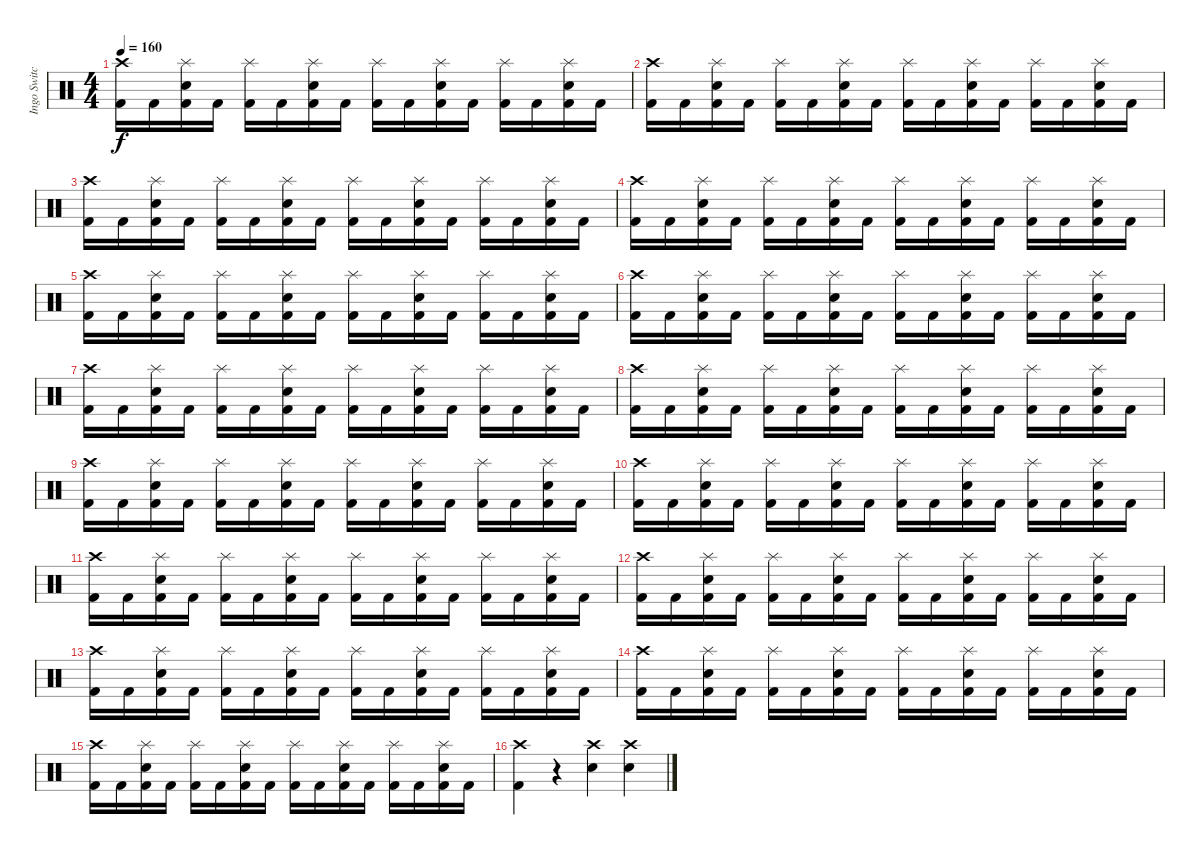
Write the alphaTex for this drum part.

\track ("Ingo Switchenberg" "Ingo Switc") {instrument percussion}
\staff {score}
\articulation defaults
\ts (4 4)
\tempo 160
\clef neutral
\ks c
("Crash high (hit)" "Kick (hit) 2").16{dy f} "Kick (hit) 2".16 ("Snare (hit) 2" "Kick (hit) 2" "Splash (hit)").16 "Kick (hit) 2".16 ("Kick (hit) 2" "Splash (hit)").16 "Kick (hit) 2".16 ("Snare (hit) 2" "Kick (hit) 2" "Splash (hit)").16 "Kick (hit) 2".16 ("Kick (hit) 2" "Splash (hit)").16 "Kick (hit) 2".16 ("Snare (hit) 2" "Kick (hit) 2" "Splash (hit)").16 "Kick (hit) 2".16 ("Kick (hit) 2" "Splash (hit)").16 "Kick (hit) 2".16 ("Snare (hit) 2" "Kick (hit) 2" "Splash (hit)").16 "Kick (hit) 2".16 |
("Crash high (hit)" "Kick (hit) 2").16 "Kick (hit) 2".16 ("Snare (hit) 2" "Kick (hit) 2" "Splash (hit)").16 "Kick (hit) 2".16 ("Kick (hit) 2" "Splash (hit)").16 "Kick (hit) 2".16 ("Snare (hit) 2" "Kick (hit) 2" "Splash (hit)").16 "Kick (hit) 2".16 ("Kick (hit) 2" "Splash (hit)").16 "Kick (hit) 2".16 ("Snare (hit) 2" "Kick (hit) 2" "Splash (hit)").16 "Kick (hit) 2".16 ("Kick (hit) 2" "Splash (hit)").16 "Kick (hit) 2".16 ("Snare (hit) 2" "Kick (hit) 2" "Splash (hit)").16 "Kick (hit) 2".16 |
("Crash high (hit)" "Kick (hit) 2").16 "Kick (hit) 2".16 ("Snare (hit) 2" "Kick (hit) 2" "Splash (hit)").16 "Kick (hit) 2".16 ("Kick (hit) 2" "Splash (hit)").16 "Kick (hit) 2".16 ("Snare (hit) 2" "Kick (hit) 2" "Splash (hit)").16 "Kick (hit) 2".16 ("Kick (hit) 2" "Splash (hit)").16 "Kick (hit) 2".16 ("Snare (hit) 2" "Kick (hit) 2" "Splash (hit)").16 "Kick (hit) 2".16 ("Kick (hit) 2" "Splash (hit)").16 "Kick (hit) 2".16 ("Snare (hit) 2" "Kick (hit) 2" "Splash (hit)").16 "Kick (hit) 2".16 |
("Crash high (hit)" "Kick (hit) 2").16 "Kick (hit) 2".16 ("Snare (hit) 2" "Kick (hit) 2" "Splash (hit)").16 "Kick (hit) 2".16 ("Kick (hit) 2" "Splash (hit)").16 "Kick (hit) 2".16 ("Snare (hit) 2" "Kick (hit) 2" "Splash (hit)").16 "Kick (hit) 2".16 ("Kick (hit) 2" "Splash (hit)").16 "Kick (hit) 2".16 ("Snare (hit) 2" "Kick (hit) 2" "Splash (hit)").16 "Kick (hit) 2".16 ("Kick (hit) 2" "Splash (hit)").16 "Kick (hit) 2".16 ("Snare (hit) 2" "Kick (hit) 2" "Splash (hit)").16 "Kick (hit) 2".16 |
("Crash high (hit)" "Kick (hit) 2").16 "Kick (hit) 2".16 ("Snare (hit) 2" "Kick (hit) 2" "Splash (hit)").16 "Kick (hit) 2".16 ("Kick (hit) 2" "Splash (hit)").16 "Kick (hit) 2".16 ("Snare (hit) 2" "Kick (hit) 2" "Splash (hit)").16 "Kick (hit) 2".16 ("Kick (hit) 2" "Splash (hit)").16 "Kick (hit) 2".16 ("Snare (hit) 2" "Kick (hit) 2" "Splash (hit)").16 "Kick (hit) 2".16 ("Kick (hit) 2" "Splash (hit)").16 "Kick (hit) 2".16 ("Snare (hit) 2" "Kick (hit) 2" "Splash (hit)").16 "Kick (hit) 2".16 |
("Crash high (hit)" "Kick (hit) 2").16 "Kick (hit) 2".16 ("Snare (hit) 2" "Kick (hit) 2" "Splash (hit)").16 "Kick (hit) 2".16 ("Kick (hit) 2" "Splash (hit)").16 "Kick (hit) 2".16 ("Snare (hit) 2" "Kick (hit) 2" "Splash (hit)").16 "Kick (hit) 2".16 ("Kick (hit) 2" "Splash (hit)").16 "Kick (hit) 2".16 ("Snare (hit) 2" "Kick (hit) 2" "Splash (hit)").16 "Kick (hit) 2".16 ("Kick (hit) 2" "Splash (hit)").16 "Kick (hit) 2".16 ("Snare (hit) 2" "Kick (hit) 2" "Splash (hit)").16 "Kick (hit) 2".16 |
("Crash high (hit)" "Kick (hit) 2").16 "Kick (hit) 2".16 ("Snare (hit) 2" "Kick (hit) 2" "Splash (hit)").16 "Kick (hit) 2".16 ("Kick (hit) 2" "Splash (hit)").16 "Kick (hit) 2".16 ("Snare (hit) 2" "Kick (hit) 2" "Splash (hit)").16 "Kick (hit) 2".16 ("Kick (hit) 2" "Splash (hit)").16 "Kick (hit) 2".16 ("Snare (hit) 2" "Kick (hit) 2" "Splash (hit)").16 "Kick (hit) 2".16 ("Kick (hit) 2" "Splash (hit)").16 "Kick (hit) 2".16 ("Snare (hit) 2" "Kick (hit) 2" "Splash (hit)").16 "Kick (hit) 2".16 |
("Crash high (hit)" "Kick (hit) 2").16 "Kick (hit) 2".16 ("Snare (hit) 2" "Kick (hit) 2" "Splash (hit)").16 "Kick (hit) 2".16 ("Kick (hit) 2" "Splash (hit)").16 "Kick (hit) 2".16 ("Snare (hit) 2" "Kick (hit) 2" "Splash (hit)").16 "Kick (hit) 2".16 ("Kick (hit) 2" "Splash (hit)").16 "Kick (hit) 2".16 ("Snare (hit) 2" "Kick (hit) 2" "Splash (hit)").16 "Kick (hit) 2".16 ("Kick (hit) 2" "Splash (hit)").16 "Kick (hit) 2".16 ("Snare (hit) 2" "Kick (hit) 2" "Splash (hit)").16 "Kick (hit) 2".16 |
("Crash high (hit)" "Kick (hit) 2").16 "Kick (hit) 2".16 ("Snare (hit) 2" "Kick (hit) 2" "Splash (hit)").16 "Kick (hit) 2".16 ("Kick (hit) 2" "Splash (hit)").16 "Kick (hit) 2".16 ("Snare (hit) 2" "Kick (hit) 2" "Splash (hit)").16 "Kick (hit) 2".16 ("Kick (hit) 2" "Splash (hit)").16 "Kick (hit) 2".16 ("Snare (hit) 2" "Kick (hit) 2" "Splash (hit)").16 "Kick (hit) 2".16 ("Kick (hit) 2" "Splash (hit)").16 "Kick (hit) 2".16 ("Snare (hit) 2" "Kick (hit) 2" "Splash (hit)").16 "Kick (hit) 2".16 |
("Crash high (hit)" "Kick (hit) 2").16 "Kick (hit) 2".16 ("Snare (hit) 2" "Kick (hit) 2" "Splash (hit)").16 "Kick (hit) 2".16 ("Kick (hit) 2" "Splash (hit)").16 "Kick (hit) 2".16 ("Snare (hit) 2" "Kick (hit) 2" "Splash (hit)").16 "Kick (hit) 2".16 ("Kick (hit) 2" "Splash (hit)").16 "Kick (hit) 2".16 ("Snare (hit) 2" "Kick (hit) 2" "Splash (hit)").16 "Kick (hit) 2".16 ("Kick (hit) 2" "Splash (hit)").16 "Kick (hit) 2".16 ("Snare (hit) 2" "Kick (hit) 2" "Splash (hit)").16 "Kick (hit) 2".16 |
("Crash high (hit)" "Kick (hit) 2").16 "Kick (hit) 2".16 ("Snare (hit) 2" "Kick (hit) 2" "Splash (hit)").16 "Kick (hit) 2".16 ("Kick (hit) 2" "Splash (hit)").16 "Kick (hit) 2".16 ("Snare (hit) 2" "Kick (hit) 2" "Splash (hit)").16 "Kick (hit) 2".16 ("Kick (hit) 2" "Splash (hit)").16 "Kick (hit) 2".16 ("Snare (hit) 2" "Kick (hit) 2" "Splash (hit)").16 "Kick (hit) 2".16 ("Kick (hit) 2" "Splash (hit)").16 "Kick (hit) 2".16 ("Snare (hit) 2" "Kick (hit) 2" "Splash (hit)").16 "Kick (hit) 2".16 |
("Crash high (hit)" "Kick (hit) 2").16 "Kick (hit) 2".16 ("Snare (hit) 2" "Kick (hit) 2" "Splash (hit)").16 "Kick (hit) 2".16 ("Kick (hit) 2" "Splash (hit)").16 "Kick (hit) 2".16 ("Snare (hit) 2" "Kick (hit) 2" "Splash (hit)").16 "Kick (hit) 2".16 ("Kick (hit) 2" "Splash (hit)").16 "Kick (hit) 2".16 ("Snare (hit) 2" "Kick (hit) 2" "Splash (hit)").16 "Kick (hit) 2".16 ("Kick (hit) 2" "Splash (hit)").16 "Kick (hit) 2".16 ("Snare (hit) 2" "Kick (hit) 2" "Splash (hit)").16 "Kick (hit) 2".16 |
("Crash high (hit)" "Kick (hit) 2").16 "Kick (hit) 2".16 ("Snare (hit) 2" "Kick (hit) 2" "Splash (hit)").16 "Kick (hit) 2".16 ("Kick (hit) 2" "Splash (hit)").16 "Kick (hit) 2".16 ("Snare (hit) 2" "Kick (hit) 2" "Splash (hit)").16 "Kick (hit) 2".16 ("Kick (hit) 2" "Splash (hit)").16 "Kick (hit) 2".16 ("Snare (hit) 2" "Kick (hit) 2" "Splash (hit)").16 "Kick (hit) 2".16 ("Kick (hit) 2" "Splash (hit)").16 "Kick (hit) 2".16 ("Snare (hit) 2" "Kick (hit) 2" "Splash (hit)").16 "Kick (hit) 2".16 |
("Crash high (hit)" "Kick (hit) 2").16 "Kick (hit) 2".16 ("Snare (hit) 2" "Kick (hit) 2" "Splash (hit)").16 "Kick (hit) 2".16 ("Kick (hit) 2" "Splash (hit)").16 "Kick (hit) 2".16 ("Snare (hit) 2" "Kick (hit) 2" "Splash (hit)").16 "Kick (hit) 2".16 ("Kick (hit) 2" "Splash (hit)").16 "Kick (hit) 2".16 ("Snare (hit) 2" "Kick (hit) 2" "Splash (hit)").16 "Kick (hit) 2".16 ("Kick (hit) 2" "Splash (hit)").16 "Kick (hit) 2".16 ("Snare (hit) 2" "Kick (hit) 2" "Splash (hit)").16 "Kick (hit) 2".16 |
("Crash high (hit)" "Kick (hit) 2").16 "Kick (hit) 2".16 ("Snare (hit) 2" "Kick (hit) 2" "Splash (hit)").16 "Kick (hit) 2".16 ("Kick (hit) 2" "Splash (hit)").16 "Kick (hit) 2".16 ("Snare (hit) 2" "Kick (hit) 2" "Splash (hit)").16 "Kick (hit) 2".16 ("Kick (hit) 2" "Splash (hit)").16 "Kick (hit) 2".16 ("Snare (hit) 2" "Kick (hit) 2" "Splash (hit)").16 "Kick (hit) 2".16 ("Kick (hit) 2" "Splash (hit)").16 "Kick (hit) 2".16 ("Snare (hit) 2" "Kick (hit) 2" "Splash (hit)").16 "Kick (hit) 2".16 |
("Kick (hit) 2" "Crash high (hit)").4 r.4 ("Crash high (hit)" "Electric Snare (hit)").4 ("Crash high (hit)" "Electric Snare (hit)").4
